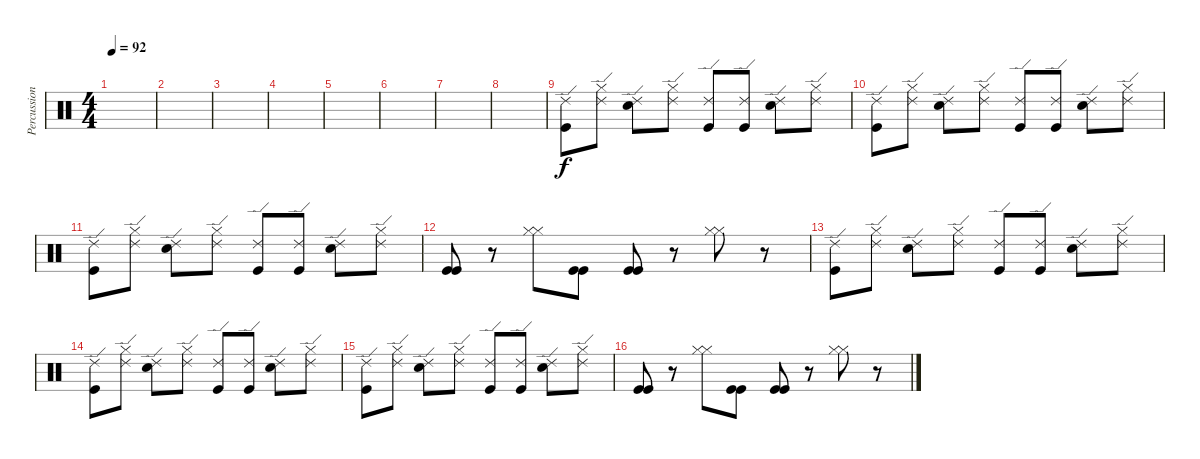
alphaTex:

\track ("Percussion" "Percussion") {instrument percussion}
\staff {score}
\articulation defaults
\ts (4 4)
\tempo 92
\clef neutral
\ks c
|
|
|
|
|
|
|
|
("Kick (hit)" "Ride (edge) 2").8 ("Hi-Hat (closed)" "Ride (edge) 2").8 ("Snare (hit) 2" "Ride (edge) 2").8 ("Hi-Hat (closed)" "Ride (edge) 2").8 ("Kick (hit)" "Ride (edge) 2").8 ("Kick (hit)" "Ride (edge) 2").8 ("Snare (hit) 2" "Ride (edge) 2").8 ("Hi-Hat (closed)" "Ride (edge) 2").8 |
("Kick (hit)" "Ride (edge) 2").8 ("Hi-Hat (closed)" "Ride (edge) 2").8 ("Snare (hit) 2" "Ride (edge) 2").8 ("Hi-Hat (closed)" "Ride (edge) 2").8 ("Kick (hit)" "Ride (edge) 2").8 ("Kick (hit)" "Ride (edge) 2").8 ("Snare (hit) 2" "Ride (edge) 2").8 ("Hi-Hat (closed)" "Ride (edge) 2").8 |
("Kick (hit)" "Ride (edge) 2").8 ("Hi-Hat (closed)" "Ride (edge) 2").8 ("Snare (hit) 2" "Ride (edge) 2").8 ("Hi-Hat (closed)" "Ride (edge) 2").8 ("Kick (hit)" "Ride (edge) 2").8 ("Kick (hit)" "Ride (edge) 2").8 ("Snare (hit) 2" "Ride (edge) 2").8 ("Hi-Hat (closed)" "Ride (edge) 2").8 |
("Kick (hit)" "Kick (hit)").8 r.8 ("Hi-Hat (closed)" "Hi-Hat (closed)").8 ("Kick (hit)" "Kick (hit)").8 ("Kick (hit)" "Kick (hit)").8 r.8 ("Hi-Hat (closed)" "Hi-Hat (closed)").8 r.8 |
("Kick (hit)" "Ride (edge) 2").8 ("Hi-Hat (closed)" "Ride (edge) 2").8 ("Snare (hit) 2" "Ride (edge) 2").8 ("Hi-Hat (closed)" "Ride (edge) 2").8 ("Kick (hit)" "Ride (edge) 2").8 ("Kick (hit)" "Ride (edge) 2").8 ("Snare (hit) 2" "Ride (edge) 2").8 ("Hi-Hat (closed)" "Ride (edge) 2").8 |
("Kick (hit)" "Ride (edge) 2").8 ("Hi-Hat (closed)" "Ride (edge) 2").8 ("Snare (hit) 2" "Ride (edge) 2").8 ("Hi-Hat (closed)" "Ride (edge) 2").8 ("Kick (hit)" "Ride (edge) 2").8 ("Kick (hit)" "Ride (edge) 2").8 ("Snare (hit) 2" "Ride (edge) 2").8 ("Hi-Hat (closed)" "Ride (edge) 2").8 |
("Kick (hit)" "Ride (edge) 2").8 ("Hi-Hat (closed)" "Ride (edge) 2").8 ("Snare (hit) 2" "Ride (edge) 2").8 ("Hi-Hat (closed)" "Ride (edge) 2").8 ("Kick (hit)" "Ride (edge) 2").8 ("Kick (hit)" "Ride (edge) 2").8 ("Snare (hit) 2" "Ride (edge) 2").8 ("Hi-Hat (closed)" "Ride (edge) 2").8 |
("Kick (hit)" "Kick (hit)").8 r.8 ("Hi-Hat (closed)" "Hi-Hat (closed)").8 ("Kick (hit)" "Kick (hit)").8 ("Kick (hit)" "Kick (hit)").8 r.8 ("Hi-Hat (closed)" "Hi-Hat (closed)").8 r.8
